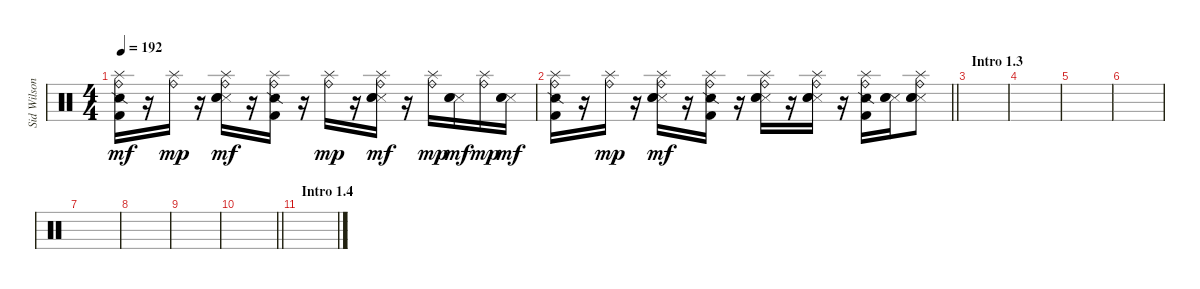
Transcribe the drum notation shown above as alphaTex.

\track ("Sid Wilson" "Sid Wilson") {instrument percussion}
\staff {score}
\articulation defaults
\ts (4 4)
\tempo 192
\clef neutral
\ks c
("Splash (hit)" "Ride (bell)" "Snare (side stick) 2" "Kick (hit) 2").16{dy mf} r.16 ("Splash (hit)" "Ride (bell)").16{dy mp} r.16 ("Splash (hit)" "Ride (bell)" "Snare (side stick) 3" "Electric Snare (hit)" "Hand Clap (hit)").16{dy mf} r.16 ("Splash (hit)" "Ride (bell)" "Snare (side stick) 2" "Kick (hit) 2").16 r.16 ("Splash (hit)" "Ride (bell)").16{dy mp} r.16 ("Splash (hit)" "Ride (bell)" "Snare (side stick) 3" "Electric Snare (hit)" "Hand Clap (hit)").16{dy mf} r.16 ("Splash (hit)" "Ride (bell)").16{dy mp} ("Snare (side stick) 3" "Electric Snare (hit)" "Hand Clap (hit)").16{dy mf} ("Splash (hit)" "Ride (bell)").16{dy mp} ("Snare (side stick) 3" "Electric Snare (hit)" "Hand Clap (hit)").16{dy mf} |
\barLineRight lightlight
("Splash (hit)" "Ride (bell)" "Snare (side stick) 2" "Kick (hit) 2").16 r.16 ("Splash (hit)" "Ride (bell)").16{dy mp} r.16 ("Splash (hit)" "Ride (bell)" "Snare (side stick) 3" "Electric Snare (hit)" "Hand Clap (hit)").16{dy mf} r.16 ("Splash (hit)" "Ride (bell)" "Snare (side stick) 2" "Kick (hit) 2").16 r.16 ("Splash (hit)" "Ride (bell)" "Snare (side stick) 3" "Electric Snare (hit)" "Hand Clap (hit)").16 r.16 ("Splash (hit)" "Ride (bell)" "Snare (side stick) 3" "Electric Snare (hit)" "Hand Clap (hit)").16 r.16 ("Splash (hit)" "Ride (bell)" "Snare (side stick) 2" "Kick (hit) 2").16 ("Snare (side stick) 3" "Electric Snare (hit)" "Hand Clap (hit)").16 ("Splash (hit)" "Ride (bell)" "Snare (side stick) 3" "Electric Snare (hit)" "Hand Clap (hit)").8 |
\section ("" "Intro 1.3")
|
|
|
|
|
|
|
\barLineRight lightlight
|
\section ("" "Intro 1.4")
